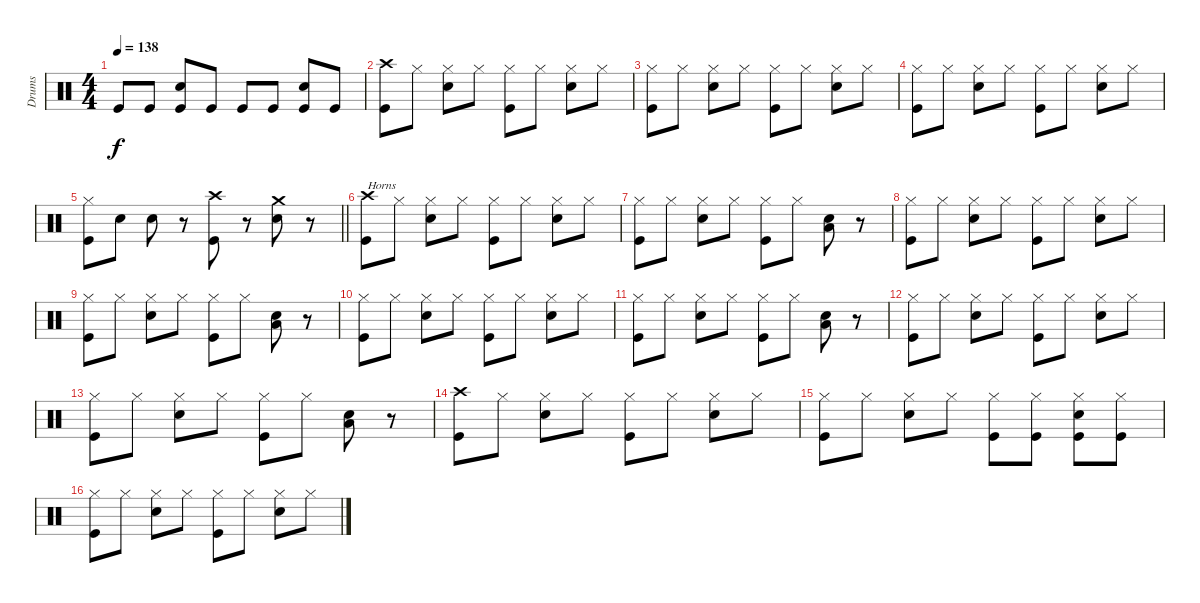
\track ("Drums" "Drums") {instrument percussion}
\staff {score}
\articulation defaults
\ts (4 4)
\tempo 138
\clef neutral
\ks c "Kick (hit)".8{dy f} "Kick (hit)".8
("Kick (hit)" "Electric Snare (hit)").8 "Kick (hit)".8 "Kick (hit)".8 "Kick (hit)".8 ("Kick (hit)" "Electric Snare (hit)").8 "Kick (hit)".8 |
("Kick (hit)" "Crash high (hit)").8 "Hi-Hat (closed)".8 ("Electric Snare (hit)" "Hi-Hat (closed)").8 "Hi-Hat (closed)".8 ("Kick (hit)" "Hi-Hat (closed)").8 "Hi-Hat (closed)".8 ("Electric Snare (hit)" "Hi-Hat (closed)").8 "Hi-Hat (closed)".8 |
("Kick (hit)" "Hi-Hat (closed)").8 "Hi-Hat (closed)".8 ("Electric Snare (hit)" "Hi-Hat (closed)").8 "Hi-Hat (closed)".8 ("Kick (hit)" "Hi-Hat (closed)").8 "Hi-Hat (closed)".8 ("Electric Snare (hit)" "Hi-Hat (closed)").8 "Hi-Hat (closed)".8 |
("Kick (hit)" "Hi-Hat (closed)").8 "Hi-Hat (closed)".8 ("Electric Snare (hit)" "Hi-Hat (closed)").8 "Hi-Hat (closed)".8 ("Kick (hit)" "Hi-Hat (closed)").8 "Hi-Hat (closed)".8 ("Electric Snare (hit)" "Hi-Hat (closed)").8 "Hi-Hat (closed)".8 |
\barLineRight lightlight
("Kick (hit)" "Hi-Hat (closed)").8 "Electric Snare (hit)".8 "Electric Snare (hit)".8 r.8 ("Kick (hit)" "Crash high (hit)").8 r.8 ("Electric Snare (hit)" "Crash medium (hit)").8 r.8 |
("Kick (hit)" "Crash high (hit)").8{txt "Horns"} "Hi-Hat (closed)".8 ("Electric Snare (hit)" "Hi-Hat (closed)").8 "Hi-Hat (closed)".8 ("Kick (hit)" "Hi-Hat (closed)").8 "Hi-Hat (closed)".8 ("Electric Snare (hit)" "Hi-Hat (closed)").8 "Hi-Hat (closed)".8 |
("Kick (hit)" "Hi-Hat (closed)").8 "Hi-Hat (closed)".8 ("Electric Snare (hit)" "Hi-Hat (closed)").8 "Hi-Hat (closed)".8 ("Kick (hit)" "Hi-Hat (closed)").8 "Hi-Hat (closed)".8 ("Electric Snare (hit)" "Low Tom (hit)").8 r.8 |
("Kick (hit)" "Hi-Hat (closed)").8 "Hi-Hat (closed)".8 ("Electric Snare (hit)" "Hi-Hat (closed)").8 "Hi-Hat (closed)".8 ("Kick (hit)" "Hi-Hat (closed)").8 "Hi-Hat (closed)".8 ("Electric Snare (hit)" "Hi-Hat (closed)").8 "Hi-Hat (closed)".8 |
("Kick (hit)" "Hi-Hat (closed)").8 "Hi-Hat (closed)".8 ("Electric Snare (hit)" "Hi-Hat (closed)").8 "Hi-Hat (closed)".8 ("Kick (hit)" "Hi-Hat (closed)").8 "Hi-Hat (closed)".8 ("Electric Snare (hit)" "Low Tom (hit)").8 r.8 |
("Kick (hit)" "Hi-Hat (closed)").8 "Hi-Hat (closed)".8 ("Electric Snare (hit)" "Hi-Hat (closed)").8 "Hi-Hat (closed)".8 ("Kick (hit)" "Hi-Hat (closed)").8 "Hi-Hat (closed)".8 ("Electric Snare (hit)" "Hi-Hat (closed)").8 "Hi-Hat (closed)".8 |
("Kick (hit)" "Hi-Hat (closed)").8 "Hi-Hat (closed)".8 ("Electric Snare (hit)" "Hi-Hat (closed)").8 "Hi-Hat (closed)".8 ("Kick (hit)" "Hi-Hat (closed)").8 "Hi-Hat (closed)".8 ("Electric Snare (hit)" "Low Tom (hit)").8 r.8 |
("Kick (hit)" "Hi-Hat (closed)").8 "Hi-Hat (closed)".8 ("Electric Snare (hit)" "Hi-Hat (closed)").8 "Hi-Hat (closed)".8 ("Kick (hit)" "Hi-Hat (closed)").8 "Hi-Hat (closed)".8 ("Electric Snare (hit)" "Hi-Hat (closed)").8 "Hi-Hat (closed)".8 |
("Kick (hit)" "Hi-Hat (closed)").8 "Hi-Hat (closed)".8 ("Electric Snare (hit)" "Hi-Hat (closed)").8 "Hi-Hat (closed)".8 ("Kick (hit)" "Hi-Hat (closed)").8 "Hi-Hat (closed)".8 ("Electric Snare (hit)" "Low Tom (hit)").8 r.8 |
("Kick (hit)" "Crash high (hit)").8 "Hi-Hat (closed)".8 ("Electric Snare (hit)" "Hi-Hat (closed)").8 "Hi-Hat (closed)".8 ("Kick (hit)" "Hi-Hat (closed)").8 "Hi-Hat (closed)".8 ("Electric Snare (hit)" "Hi-Hat (closed)").8 "Hi-Hat (closed)".8 |
("Kick (hit)" "Hi-Hat (closed)").8 "Hi-Hat (closed)".8 ("Electric Snare (hit)" "Hi-Hat (closed)").8 "Hi-Hat (closed)".8 ("Kick (hit)" "Hi-Hat (closed)").8 ("Kick (hit)" "Hi-Hat (closed)").8 ("Kick (hit)" "Electric Snare (hit)" "Hi-Hat (closed)").8 ("Kick (hit)" "Hi-Hat (closed)").8 |
("Kick (hit)" "Hi-Hat (closed)").8 "Hi-Hat (closed)".8 ("Electric Snare (hit)" "Hi-Hat (closed)").8 "Hi-Hat (closed)".8 ("Kick (hit)" "Hi-Hat (closed)").8 "Hi-Hat (closed)".8 ("Electric Snare (hit)" "Hi-Hat (closed)").8 "Hi-Hat (closed)".8
